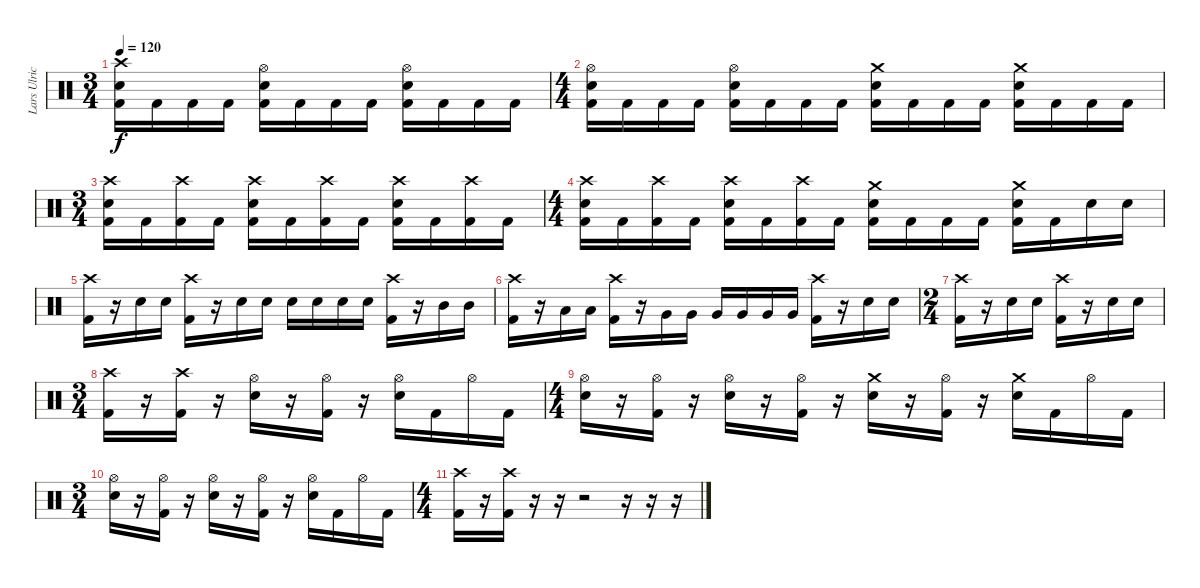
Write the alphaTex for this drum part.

\track ("Lars Ulrich" "Lars Ulric") {instrument percussion}
\staff {score}
\articulation defaults
\ts (3 4)
\tempo 120
\clef neutral
\ks c
("Crash high (hit)" "Electric Snare (hit)" "Kick (hit) 2").16{dy f} "Kick (hit) 2".16 "Kick (hit) 2".16 "Kick (hit) 2".16 ("Electric Snare (hit)" "Hi-Hat (open)" "Kick (hit) 2").16 "Kick (hit) 2".16 "Kick (hit) 2".16 "Kick (hit) 2".16 ("Electric Snare (hit)" "Hi-Hat (open)" "Kick (hit) 2").16 "Kick (hit) 2".16 "Kick (hit) 2".16 "Kick (hit) 2".16 |
\ts (4 4)
("Electric Snare (hit)" "Hi-Hat (open)" "Kick (hit) 2").16 "Kick (hit) 2".16 "Kick (hit) 2".16 "Kick (hit) 2".16 ("Electric Snare (hit)" "Hi-Hat (open)" "Kick (hit) 2").16 "Kick (hit) 2".16 "Kick (hit) 2".16 "Kick (hit) 2".16 ("Electric Snare (hit)" "Crash medium (hit)" "Kick (hit) 2").16 "Kick (hit) 2".16 "Kick (hit) 2".16 "Kick (hit) 2".16 ("Electric Snare (hit)" "Crash medium (hit)" "Kick (hit) 2").16 "Kick (hit) 2".16 "Kick (hit) 2".16 "Kick (hit) 2".16 |
\ts (3 4)
("Crash high (hit)" "Electric Snare (hit)" "Kick (hit) 2").16 "Kick (hit) 2".16 ("Crash high (hit)" "Kick (hit) 2").16 "Kick (hit) 2".16 ("Crash high (hit)" "Electric Snare (hit)" "Kick (hit) 2").16 "Kick (hit) 2".16 ("Crash high (hit)" "Kick (hit) 2").16 "Kick (hit) 2".16 ("Crash high (hit)" "Electric Snare (hit)" "Kick (hit) 2").16 "Kick (hit) 2".16 ("Crash high (hit)" "Kick (hit) 2").16 "Kick (hit) 2".16 |
\ts (4 4)
("Crash high (hit)" "Electric Snare (hit)" "Kick (hit) 2").16 "Kick (hit) 2".16 ("Crash high (hit)" "Kick (hit) 2").16 "Kick (hit) 2".16 ("Crash high (hit)" "Electric Snare (hit)" "Kick (hit) 2").16 "Kick (hit) 2".16 ("Crash high (hit)" "Kick (hit) 2").16 "Kick (hit) 2".16 ("Electric Snare (hit)" "Crash medium (hit)" "Kick (hit) 2").16 "Kick (hit) 2".16 "Kick (hit) 2".16 "Kick (hit) 2".16 ("Electric Snare (hit)" "Crash medium (hit)" "Kick (hit) 2").16 "Kick (hit) 2".16 "Electric Snare (hit)".16 "Electric Snare (hit)".16 |
("Crash high (hit)" "Kick (hit) 2").16 r.16 "Electric Snare (hit)".16 "Electric Snare (hit)".16 ("Crash high (hit)" "Kick (hit) 2").16 r.16 "Electric Snare (hit)".16 "Electric Snare (hit)".16 "Electric Snare (hit)".16 "Electric Snare (hit)".16 "Electric Snare (hit)".16 "Electric Snare (hit)".16 ("Crash high (hit)" "Kick (hit) 2").16 r.16 "Mid Tom (hit)".16 "Mid Tom (hit)".16 |
("Crash high (hit)" "Kick (hit) 2").16 r.16 "Low Tom (hit)".16 "Low Tom (hit)".16 ("Crash high (hit)" "Kick (hit) 2").16 r.16 "Very Low Tom (hit)".16 "Very Low Tom (hit)".16 "Very Low Tom (hit)".16 "Very Low Tom (hit)".16 "Very Low Tom (hit)".16 "Very Low Tom (hit)".16 ("Crash high (hit)" "Kick (hit) 2").16 r.16 "Electric Snare (hit)".16 "Electric Snare (hit)".16 |
\ts (2 4)
("Crash high (hit)" "Kick (hit) 2").16 r.16 "Electric Snare (hit)".16 "Electric Snare (hit)".16 ("Crash high (hit)" "Kick (hit) 2").16 r.16 "Electric Snare (hit)".16 "Electric Snare (hit)".16 |
\ts (3 4)
("Crash high (hit)" "Kick (hit) 2").16 r.16 ("Crash high (hit)" "Kick (hit) 2").16 r.16 ("Electric Snare (hit)" "Hi-Hat (open)").16 r.16 ("Hi-Hat (open)" "Kick (hit) 2").16 r.16 ("Electric Snare (hit)" "Hi-Hat (open)").16 "Kick (hit) 2".16 "Hi-Hat (open)".16 "Kick (hit) 2".16 |
\ts (4 4)
("Electric Snare (hit)" "Hi-Hat (open)").16 r.16 ("Hi-Hat (open)" "Kick (hit) 2").16 r.16 ("Electric Snare (hit)" "Hi-Hat (open)").16 r.16 ("Hi-Hat (open)" "Kick (hit) 2").16 r.16 ("Electric Snare (hit)" "Crash medium (hit)").16 r.16 ("Hi-Hat (open)" "Kick (hit) 2").16 r.16 ("Electric Snare (hit)" "Crash medium (hit)").16 "Kick (hit) 2".16 "Hi-Hat (open)".16 "Kick (hit) 2".16 |
\ts (3 4)
("Electric Snare (hit)" "Hi-Hat (open)").16 r.16 ("Hi-Hat (open)" "Kick (hit) 2").16 r.16 ("Electric Snare (hit)" "Hi-Hat (open)").16 r.16 ("Hi-Hat (open)" "Kick (hit) 2").16 r.16 ("Electric Snare (hit)" "Hi-Hat (open)").16 "Kick (hit) 2".16 "Hi-Hat (open)".16 "Kick (hit) 2".16 |
\ts (4 4)
("Crash high (hit)" "Kick (hit) 2").16 r.16 ("Crash high (hit)" "Kick (hit) 2").16 r.16 r.16 r.2{volume 0} r.16 r.16 r.16
